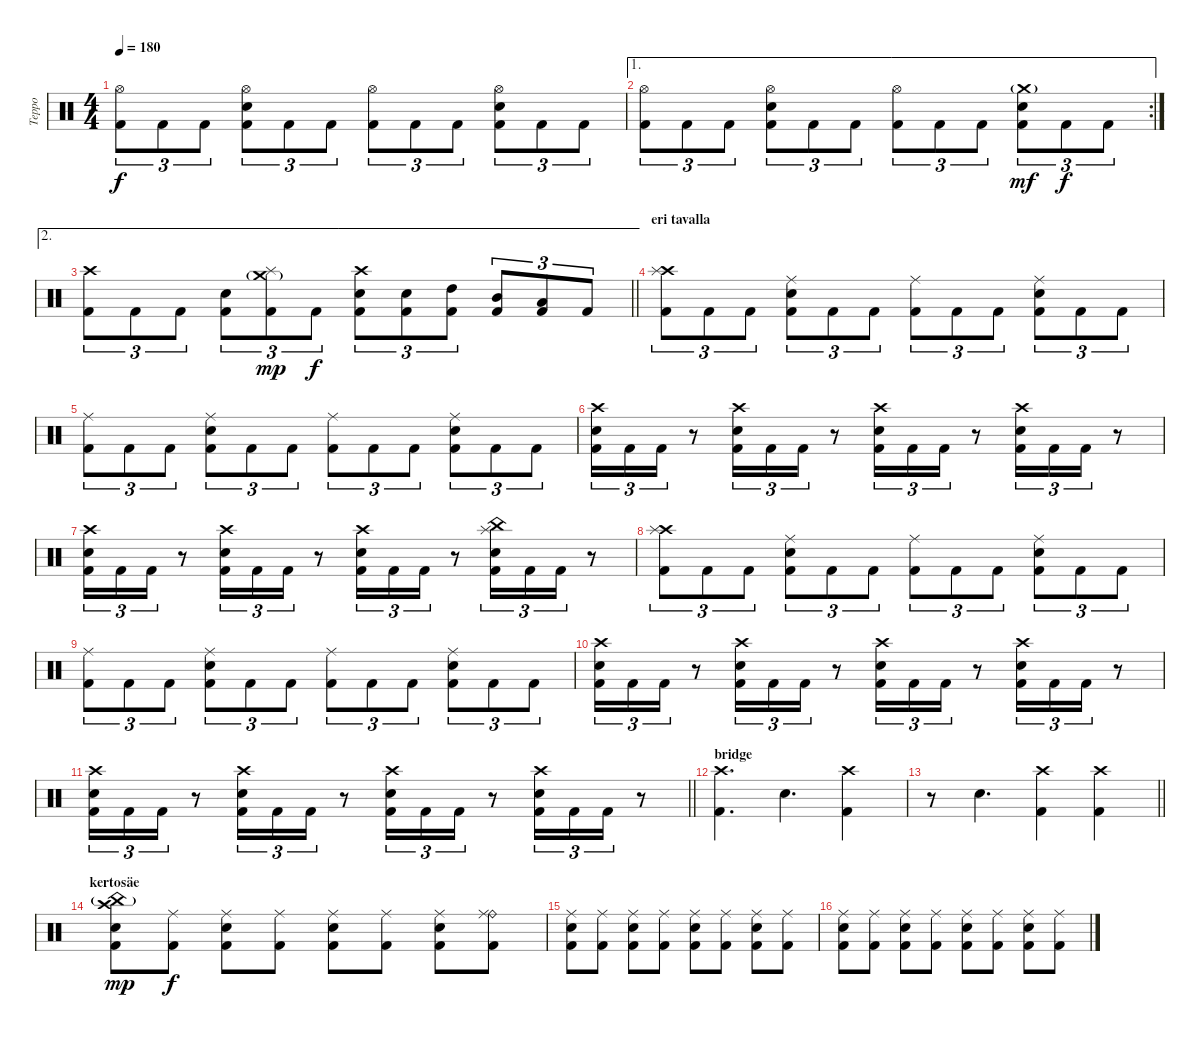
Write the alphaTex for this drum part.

\track ("Teppo" "Teppo") {instrument percussion}
\staff {score}
\articulation defaults
\ts (4 4)
\tempo 180
\clef neutral
\ks c
("Hi-Hat (open)" "Kick (hit) 2").8{tu (3 2) dy f} "Kick (hit) 2".8{tu (3 2)} "Kick (hit) 2".8{tu (3 2)} ("Hi-Hat (open)" "Electric Snare (hit)" "Kick (hit) 2").8{tu (3 2)} "Kick (hit) 2".8{tu (3 2)} "Kick (hit) 2".8{tu (3 2)} ("Hi-Hat (open)" "Kick (hit) 2").8{tu (3 2)} "Kick (hit) 2".8{tu (3 2)} "Kick (hit) 2".8{tu (3 2)} ("Hi-Hat (open)" "Electric Snare (hit)" "Kick (hit) 2").8{tu (3 2)} "Kick (hit) 2".8{tu (3 2)} "Kick (hit) 2".8{tu (3 2)} |
\ae 1
\rc 2
("Hi-Hat (open)" "Kick (hit) 2").8{tu (3 2)} "Kick (hit) 2".8{tu (3 2)} "Kick (hit) 2".8{tu (3 2)} ("Hi-Hat (open)" "Electric Snare (hit)" "Kick (hit) 2").8{tu (3 2)} "Kick (hit) 2".8{tu (3 2)} "Kick (hit) 2".8{tu (3 2)} ("Hi-Hat (open)" "Kick (hit) 2").8{tu (3 2)} "Kick (hit) 2".8{tu (3 2)} "Kick (hit) 2".8{tu (3 2)} ("Crash medium (hit)"{g} "Electric Snare (hit)" "Kick (hit) 2").8{tu (3 2) dy mf} "Kick (hit) 2".8{tu (3 2) dy f} "Kick (hit) 2".8{tu (3 2)} |
\ae 2
\barLineRight lightlight
("Crash high (hit)" "Kick (hit) 2").8{tu (3 2)} "Kick (hit) 2".8{tu (3 2)} "Kick (hit) 2".8{tu (3 2)} ("Electric Snare (hit)" "Kick (hit) 2").8{tu (3 2)} ("Crash medium (hit)"{g} "Splash (hit)" "Kick (hit) 2").8{tu (3 2) dy mp} "Kick (hit) 2".8{tu (3 2) dy f} ("Crash high (hit)" "Electric Snare (hit)" "Kick (hit) 2").8{tu (3 2)} ("Electric Snare (hit)" "Kick (hit) 2").8{tu (3 2)} ("High Tom (hit)" "Kick (hit) 2").8{tu (3 2)} ("Mid Tom (hit)" "Kick (hit) 2").8{tu (3 2)} ("Low Tom (hit)" "Kick (hit) 2").8{tu (3 2)} "Kick (hit) 2".8{tu (3 2)} |
\section ("" "eri tavalla")
("Crash high (hit)" "Splash (hit)" "Kick (hit) 2").8{tu (3 2)} "Kick (hit) 2".8{tu (3 2)} "Kick (hit) 2".8{tu (3 2)} ("Ride (middle)" "Electric Snare (hit)" "Kick (hit) 2").8{tu (3 2)} "Kick (hit) 2".8{tu (3 2)} "Kick (hit) 2".8{tu (3 2)} ("Ride (middle)" "Kick (hit) 2").8{tu (3 2)} "Kick (hit) 2".8{tu (3 2)} "Kick (hit) 2".8{tu (3 2)} ("Ride (middle)" "Electric Snare (hit)" "Kick (hit) 2").8{tu (3 2)} "Kick (hit) 2".8{tu (3 2)} "Kick (hit) 2".8{tu (3 2)} |
("Ride (middle)" "Kick (hit) 2").8{tu (3 2)} "Kick (hit) 2".8{tu (3 2)} "Kick (hit) 2".8{tu (3 2)} ("Ride (middle)" "Electric Snare (hit)" "Kick (hit) 2").8{tu (3 2)} "Kick (hit) 2".8{tu (3 2)} "Kick (hit) 2".8{tu (3 2)} ("Ride (middle)" "Kick (hit) 2").8{tu (3 2)} "Kick (hit) 2".8{tu (3 2)} "Kick (hit) 2".8{tu (3 2)} ("Ride (middle)" "Electric Snare (hit)" "Kick (hit) 2").8{tu (3 2)} "Kick (hit) 2".8{tu (3 2)} "Kick (hit) 2".8{tu (3 2)} |
("Crash high (hit)" "Electric Snare (hit)" "Kick (hit) 2").16{tu (3 2)} "Kick (hit) 2".16{tu (3 2)} "Kick (hit) 2".16{tu (3 2)} r.8 ("Crash high (hit)" "Electric Snare (hit)" "Kick (hit) 2").16{tu (3 2)} "Kick (hit) 2".16{tu (3 2)} "Kick (hit) 2".16{tu (3 2)} r.8 ("Crash high (hit)" "Electric Snare (hit)" "Kick (hit) 2").16{tu (3 2)} "Kick (hit) 2".16{tu (3 2)} "Kick (hit) 2".16{tu (3 2)} r.8 ("Crash high (hit)" "Electric Snare (hit)" "Kick (hit) 2").16{tu (3 2)} "Kick (hit) 2".16{tu (3 2)} "Kick (hit) 2".16{tu (3 2)} r.8 |
("Crash high (hit)" "Electric Snare (hit)" "Kick (hit) 2").16{tu (3 2)} "Kick (hit) 2".16{tu (3 2)} "Kick (hit) 2".16{tu (3 2)} r.8 ("Crash high (hit)" "Electric Snare (hit)" "Kick (hit) 2").16{tu (3 2)} "Kick (hit) 2".16{tu (3 2)} "Kick (hit) 2".16{tu (3 2)} r.8 ("Crash high (hit)" "Electric Snare (hit)" "Kick (hit) 2").16{tu (3 2)} "Kick (hit) 2".16{tu (3 2)} "Kick (hit) 2".16{tu (3 2)} r.8 ("China (hit)" "Splash (hit)" "Electric Snare (hit)" "Kick (hit) 2").16{tu (3 2)} "Kick (hit) 2".16{tu (3 2)} "Kick (hit) 2".16{tu (3 2)} r.8 |
("Crash high (hit)" "Splash (hit)" "Kick (hit) 2").8{tu (3 2)} "Kick (hit) 2".8{tu (3 2)} "Kick (hit) 2".8{tu (3 2)} ("Ride (middle)" "Electric Snare (hit)" "Kick (hit) 2").8{tu (3 2)} "Kick (hit) 2".8{tu (3 2)} "Kick (hit) 2".8{tu (3 2)} ("Ride (middle)" "Kick (hit) 2").8{tu (3 2)} "Kick (hit) 2".8{tu (3 2)} "Kick (hit) 2".8{tu (3 2)} ("Ride (middle)" "Electric Snare (hit)" "Kick (hit) 2").8{tu (3 2)} "Kick (hit) 2".8{tu (3 2)} "Kick (hit) 2".8{tu (3 2)} |
("Ride (middle)" "Kick (hit) 2").8{tu (3 2)} "Kick (hit) 2".8{tu (3 2)} "Kick (hit) 2".8{tu (3 2)} ("Ride (middle)" "Electric Snare (hit)" "Kick (hit) 2").8{tu (3 2)} "Kick (hit) 2".8{tu (3 2)} "Kick (hit) 2".8{tu (3 2)} ("Ride (middle)" "Kick (hit) 2").8{tu (3 2)} "Kick (hit) 2".8{tu (3 2)} "Kick (hit) 2".8{tu (3 2)} ("Ride (middle)" "Electric Snare (hit)" "Kick (hit) 2").8{tu (3 2)} "Kick (hit) 2".8{tu (3 2)} "Kick (hit) 2".8{tu (3 2)} |
("Crash high (hit)" "Electric Snare (hit)" "Kick (hit) 2").16{tu (3 2)} "Kick (hit) 2".16{tu (3 2)} "Kick (hit) 2".16{tu (3 2)} r.8 ("Crash high (hit)" "Electric Snare (hit)" "Kick (hit) 2").16{tu (3 2)} "Kick (hit) 2".16{tu (3 2)} "Kick (hit) 2".16{tu (3 2)} r.8 ("Crash high (hit)" "Electric Snare (hit)" "Kick (hit) 2").16{tu (3 2)} "Kick (hit) 2".16{tu (3 2)} "Kick (hit) 2".16{tu (3 2)} r.8 ("Crash high (hit)" "Electric Snare (hit)" "Kick (hit) 2").16{tu (3 2)} "Kick (hit) 2".16{tu (3 2)} "Kick (hit) 2".16{tu (3 2)} r.8 |
\barLineRight lightlight
("Crash high (hit)" "Electric Snare (hit)" "Kick (hit) 2").16{tu (3 2)} "Kick (hit) 2".16{tu (3 2)} "Kick (hit) 2".16{tu (3 2)} r.8 ("Crash high (hit)" "Electric Snare (hit)" "Kick (hit) 2").16{tu (3 2)} "Kick (hit) 2".16{tu (3 2)} "Kick (hit) 2".16{tu (3 2)} r.8 ("Crash high (hit)" "Electric Snare (hit)" "Kick (hit) 2").16{tu (3 2)} "Kick (hit) 2".16{tu (3 2)} "Kick (hit) 2".16{tu (3 2)} r.8 ("Crash high (hit)" "Electric Snare (hit)" "Kick (hit) 2").16{tu (3 2)} "Kick (hit) 2".16{tu (3 2)} "Kick (hit) 2".16{tu (3 2)} r.8 |
\section ("" "bridge")
("Crash high (hit)" "Kick (hit) 2").4{d} "Electric Snare (hit)".4{d} ("Crash high (hit)" "Kick (hit) 2").4 |
\barLineRight lightlight
r.8 "Electric Snare (hit)".4{d} ("Crash high (hit)" "Kick (hit) 2").4 ("Crash high (hit)" "Kick (hit) 2").4 |
\section ("" "kertosäe")
("Crash high (hit)" "China (hit)"{g} "Electric Snare (hit)" "Kick (hit) 2").8{dy mp} ("Ride (middle)" "Kick (hit) 2").8{dy f} ("Ride (middle)" "Electric Snare (hit)" "Kick (hit) 2").8 ("Ride (middle)" "Kick (hit) 2").8 ("Ride (middle)" "Electric Snare (hit)" "Kick (hit) 2").8 ("Ride (middle)" "Kick (hit) 2").8 ("Ride (middle)" "Electric Snare (hit)" "Kick (hit) 2").8 ("Ride (bell)" "Ride (middle)" "Kick (hit) 2").8 |
("Ride (middle)" "Electric Snare (hit)" "Kick (hit) 2").8 ("Ride (middle)" "Kick (hit) 2").8 ("Ride (middle)" "Electric Snare (hit)" "Kick (hit) 2").8 ("Ride (middle)" "Kick (hit) 2").8 ("Ride (middle)" "Electric Snare (hit)" "Kick (hit) 2").8 ("Ride (middle)" "Kick (hit) 2").8 ("Ride (middle)" "Electric Snare (hit)" "Kick (hit) 2").8 ("Ride (middle)" "Kick (hit) 2").8 |
("Ride (middle)" "Electric Snare (hit)" "Kick (hit) 2").8 ("Ride (middle)" "Kick (hit) 2").8 ("Ride (middle)" "Electric Snare (hit)" "Kick (hit) 2").8 ("Ride (middle)" "Kick (hit) 2").8 ("Ride (middle)" "Electric Snare (hit)" "Kick (hit) 2").8 ("Ride (middle)" "Kick (hit) 2").8 ("Ride (middle)" "Electric Snare (hit)" "Kick (hit) 2").8 ("Ride (middle)" "Kick (hit) 2").8
